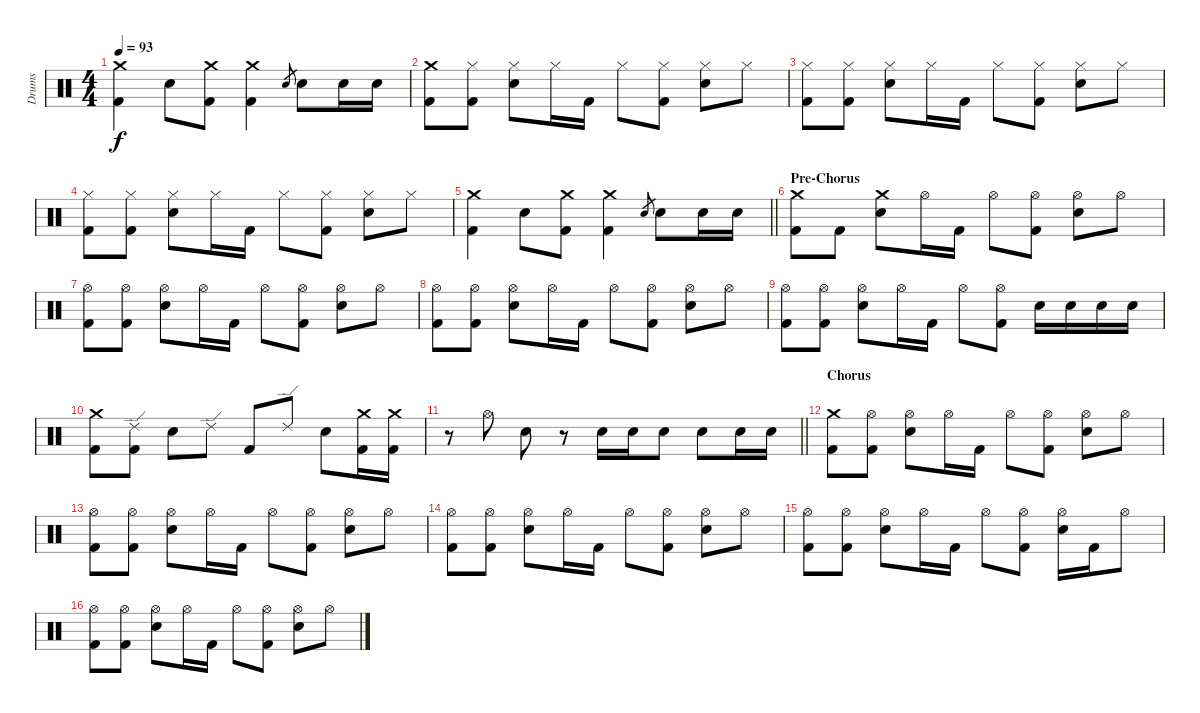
\track ("Drums" "Drums") {instrument percussion}
\staff {score}
\articulation defaults
\ts (4 4)
\tempo 93
\clef neutral
\ks c
("Crash medium (hit)" "Kick (hit) 2").4{dy f} "Snare (hit) 2".8 ("Crash medium (hit)" "Kick (hit) 2").8 ("Crash medium (hit)" "Kick (hit) 2").4 "Snare (hit) 2".8{gr} "Snare (hit) 2".8 "Snare (hit) 2".16 "Snare (hit) 2".16 |
("Crash medium (hit)" "Kick (hit) 2").8 ("Hi-Hat (closed)" "Kick (hit) 2").8 ("Hi-Hat (closed)" "Snare (hit) 2").8 "Hi-Hat (closed)".16 "Kick (hit) 2".16 "Hi-Hat (closed)".8 ("Hi-Hat (closed)" "Kick (hit) 2").8 ("Hi-Hat (closed)" "Snare (hit) 2").8 "Hi-Hat (closed)".8 |
("Hi-Hat (closed)" "Kick (hit) 2").8 ("Hi-Hat (closed)" "Kick (hit) 2").8 ("Hi-Hat (closed)" "Snare (hit) 2").8 "Hi-Hat (closed)".16 "Kick (hit) 2".16 "Hi-Hat (closed)".8 ("Hi-Hat (closed)" "Kick (hit) 2").8 ("Hi-Hat (closed)" "Snare (hit) 2").8 "Hi-Hat (closed)".8 |
("Hi-Hat (closed)" "Kick (hit) 2").8 ("Hi-Hat (closed)" "Kick (hit) 2").8 ("Hi-Hat (closed)" "Snare (hit) 2").8 "Hi-Hat (closed)".16 "Kick (hit) 2".16 "Hi-Hat (closed)".8 ("Hi-Hat (closed)" "Kick (hit) 2").8 ("Hi-Hat (closed)" "Snare (hit) 2").8 "Hi-Hat (closed)".8 |
\barLineRight lightlight
("Crash medium (hit)" "Kick (hit) 2").4 "Snare (hit) 2".8 ("Crash medium (hit)" "Kick (hit) 2").8 ("Crash medium (hit)" "Kick (hit) 2").4 "Snare (hit) 2".8{gr} "Snare (hit) 2".8 "Snare (hit) 2".16 "Snare (hit) 2".16 |
\section ("" "Pre-Chorus")
("Crash medium (hit)" "Kick (hit) 2").8 "Kick (hit) 2".8 ("Crash medium (hit)" "Snare (hit) 2").8 "Hi-Hat (open)".16 "Kick (hit) 2".16 "Hi-Hat (open)".8 ("Hi-Hat (open)" "Kick (hit) 2").8 ("Hi-Hat (open)" "Snare (hit) 2").8 "Hi-Hat (open)".8 |
("Hi-Hat (open)" "Kick (hit) 2").8 ("Hi-Hat (open)" "Kick (hit) 2").8 ("Hi-Hat (open)" "Snare (hit) 2").8 "Hi-Hat (open)".16 "Kick (hit) 2".16 "Hi-Hat (open)".8 ("Hi-Hat (open)" "Kick (hit) 2").8 ("Hi-Hat (open)" "Snare (hit) 2").8 "Hi-Hat (open)".8 |
("Hi-Hat (open)" "Kick (hit) 2").8 ("Hi-Hat (open)" "Kick (hit) 2").8 ("Hi-Hat (open)" "Snare (hit) 2").8 "Hi-Hat (open)".16 "Kick (hit) 2".16 "Hi-Hat (open)".8 ("Hi-Hat (open)" "Kick (hit) 2").8 ("Hi-Hat (open)" "Snare (hit) 2").8 "Hi-Hat (open)".8 |
("Hi-Hat (open)" "Kick (hit) 2").8 ("Hi-Hat (open)" "Kick (hit) 2").8 ("Hi-Hat (open)" "Snare (hit) 2").8 "Hi-Hat (open)".16 "Kick (hit) 2".16 "Hi-Hat (open)".8 ("Hi-Hat (open)" "Kick (hit) 2").8 "Snare (hit) 2".16 "Snare (hit) 2".16 "Snare (hit) 2".16 "Snare (hit) 2".16 |
("Crash medium (hit)" "Kick (hit) 2").8 ("Ride (edge) 2" "Kick (hit) 2").8 "Snare (hit) 2".8 "Ride (edge) 2".8 "Kick (hit) 2".8 "Ride (edge) 2".8 "Snare (hit) 2".8 ("Crash medium (hit)" "Kick (hit) 2").16 ("Crash medium (hit)" "Kick (hit) 2").16 |
\barLineRight lightlight
r.8 "Hi-Hat (open)".8 "Snare (hit) 2".8 r.8 "Snare (hit) 2".16 "Snare (hit) 2".16 "Snare (hit) 2".8 "Snare (hit) 2".8 "Snare (hit) 2".16 "Snare (hit) 2".16 |
\section ("" "Chorus")
("Crash medium (hit)" "Kick (hit) 2").8 ("Hi-Hat (open)" "Kick (hit) 2").8 ("Hi-Hat (open)" "Snare (hit) 2").8 "Hi-Hat (open)".16 "Kick (hit) 2".16 "Hi-Hat (open)".8 ("Hi-Hat (open)" "Kick (hit) 2").8 ("Hi-Hat (open)" "Snare (hit) 2").8 "Hi-Hat (open)".8 |
("Hi-Hat (open)" "Kick (hit) 2").8 ("Hi-Hat (open)" "Kick (hit) 2").8 ("Hi-Hat (open)" "Snare (hit) 2").8 "Hi-Hat (open)".16 "Kick (hit) 2".16 "Hi-Hat (open)".8 ("Hi-Hat (open)" "Kick (hit) 2").8 ("Hi-Hat (open)" "Snare (hit) 2").8 "Hi-Hat (open)".8 |
("Hi-Hat (open)" "Kick (hit) 2").8 ("Hi-Hat (open)" "Kick (hit) 2").8 ("Hi-Hat (open)" "Snare (hit) 2").8 "Hi-Hat (open)".16 "Kick (hit) 2".16 "Hi-Hat (open)".8 ("Hi-Hat (open)" "Kick (hit) 2").8 ("Hi-Hat (open)" "Snare (hit) 2").8 "Hi-Hat (open)".8 |
("Hi-Hat (open)" "Kick (hit) 2").8 ("Hi-Hat (open)" "Kick (hit) 2").8 ("Hi-Hat (open)" "Snare (hit) 2").8 "Hi-Hat (open)".16 "Kick (hit) 2".16 "Hi-Hat (open)".8 ("Hi-Hat (open)" "Kick (hit) 2").8 ("Hi-Hat (open)" "Snare (hit) 2").16 "Kick (hit) 2".16 "Hi-Hat (open)".8 |
("Hi-Hat (open)" "Kick (hit) 2").8 ("Hi-Hat (open)" "Kick (hit) 2").8 ("Hi-Hat (open)" "Snare (hit) 2").8 "Hi-Hat (open)".16 "Kick (hit) 2".16 "Hi-Hat (open)".8 ("Hi-Hat (open)" "Kick (hit) 2").8 ("Hi-Hat (open)" "Snare (hit) 2").8 "Hi-Hat (open)".8
